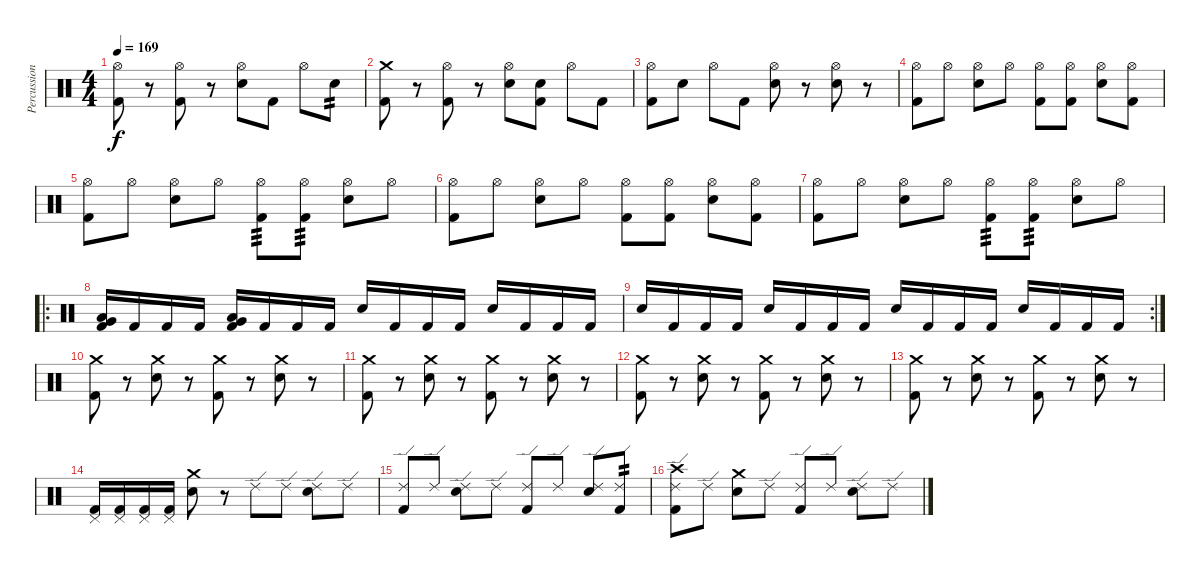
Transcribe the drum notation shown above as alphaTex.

\track ("Percussion" "Percussion") {instrument percussion}
\staff {score}
\articulation defaults
\ts (4 4)
\tempo 169
\clef neutral
\ks c
("Hi-Hat (open)" "Kick (hit) 2").8{dy f} r.8 ("Hi-Hat (open)" "Kick (hit) 2").8 r.8 ("Hi-Hat (open)" "Electric Snare (hit)").8 "Kick (hit) 2".8 "Hi-Hat (open)".8 "Electric Snare (hit)".8{tp 2} |
("Crash medium (hit)" "Kick (hit) 2").8 r.8 ("Hi-Hat (open)" "Kick (hit) 2").8 r.8 ("Hi-Hat (open)" "Electric Snare (hit)").8 ("Electric Snare (hit)" "Kick (hit) 2").8 "Hi-Hat (open)".8 "Kick (hit) 2".8 |
("Hi-Hat (open)" "Kick (hit) 2").8 "Electric Snare (hit)".8 "Hi-Hat (open)".8 "Kick (hit) 2".8 ("Hi-Hat (open)" "Electric Snare (hit)").8 r.8 ("Hi-Hat (open)" "Electric Snare (hit)").8 r.8 |
("Hi-Hat (open)" "Kick (hit) 2").8 "Hi-Hat (open)".8 ("Hi-Hat (open)" "Electric Snare (hit)").8 "Hi-Hat (open)".8 ("Hi-Hat (open)" "Kick (hit) 2").8 ("Hi-Hat (open)" "Kick (hit) 2").8 ("Hi-Hat (open)" "Electric Snare (hit)").8 ("Hi-Hat (open)" "Kick (hit) 2").8 |
("Hi-Hat (open)" "Kick (hit) 2").8 "Hi-Hat (open)".8 ("Hi-Hat (open)" "Electric Snare (hit)").8 "Hi-Hat (open)".8 ("Hi-Hat (open)" "Kick (hit) 2").8{tp 3} ("Hi-Hat (open)" "Kick (hit) 2").8{tp 3} ("Hi-Hat (open)" "Electric Snare (hit)").8 "Hi-Hat (open)".8 |
("Hi-Hat (open)" "Kick (hit) 2").8 "Hi-Hat (open)".8 ("Hi-Hat (open)" "Electric Snare (hit)").8 "Hi-Hat (open)".8 ("Hi-Hat (open)" "Kick (hit) 2").8 ("Hi-Hat (open)" "Kick (hit) 2").8 ("Hi-Hat (open)" "Electric Snare (hit)").8 ("Hi-Hat (open)" "Kick (hit) 2").8 |
("Hi-Hat (open)" "Kick (hit) 2").8 "Hi-Hat (open)".8 ("Hi-Hat (open)" "Electric Snare (hit)").8 "Hi-Hat (open)".8 ("Hi-Hat (open)" "Kick (hit) 2").8{tp 3} ("Hi-Hat (open)" "Kick (hit) 2").8{tp 3} ("Hi-Hat (open)" "Electric Snare (hit)").8 "Hi-Hat (open)".8 |
\ro
("Very Low Tom (hit)" "Low Tom (hit)" "Kick (hit) 2").16 "Kick (hit) 2".16 "Kick (hit) 2".16 "Kick (hit) 2".16 ("Very Low Tom (hit)" "Low Tom (hit)" "Kick (hit) 2").16 "Kick (hit) 2".16 "Kick (hit) 2".16 "Kick (hit) 2".16 "Electric Snare (hit)".16 "Kick (hit) 2".16 "Kick (hit) 2".16 "Kick (hit) 2".16 "Electric Snare (hit)".16 "Kick (hit) 2".16 "Kick (hit) 2".16 "Kick (hit) 2".16 |
\rc 2 "Electric Snare (hit)".16 "Kick (hit) 2".16 "Kick (hit) 2".16 "Kick (hit) 2".16 "Electric Snare (hit)".16 "Kick (hit) 2".16 "Kick (hit) 2".16 "Kick (hit) 2".16 "Electric Snare (hit)".16 "Kick (hit) 2".16 "Kick (hit) 2".16 "Kick (hit) 2".16 "Electric Snare (hit)".16 "Kick (hit) 2".16 "Kick (hit) 2".16 "Kick (hit) 2".16
|
("Crash medium (hit)" "Kick (hit) 2").8 r.8 ("Crash medium (hit)" "Electric Snare (hit)").8 r.8 ("Crash medium (hit)" "Kick (hit) 2").8 r.8 ("Crash medium (hit)" "Electric Snare (hit)").8 r.8 |
("Crash medium (hit)" "Kick (hit) 2").8 r.8 ("Crash medium (hit)" "Electric Snare (hit)").8 r.8 ("Crash medium (hit)" "Kick (hit) 2").8 r.8 ("Crash medium (hit)" "Electric Snare (hit)").8 r.8 |
("Crash medium (hit)" "Kick (hit) 2").8 r.8 ("Crash medium (hit)" "Electric Snare (hit)").8 r.8 ("Crash medium (hit)" "Kick (hit) 2").8 r.8 ("Crash medium (hit)" "Electric Snare (hit)").8 r.8 |
("Crash medium (hit)" "Kick (hit) 2").8 r.8 ("Crash medium (hit)" "Electric Snare (hit)").8 r.8 ("Crash medium (hit)" "Kick (hit) 2").8 r.8 ("Crash medium (hit)" "Electric Snare (hit)").8 r.8 |
("Pedal Hi-Hat (hit)" "Kick (hit) 2").16 ("Pedal Hi-Hat (hit)" "Kick (hit) 2").16 ("Pedal Hi-Hat (hit)" "Kick (hit) 2").16 ("Pedal Hi-Hat (hit)" "Kick (hit) 2").16 ("Crash medium (hit)" "Electric Snare (hit)").8 r.8 "Ride (edge) 2".8 "Ride (edge) 2".8 ("Ride (edge) 2" "Electric Snare (hit)").8 "Ride (edge) 2".8 |
("Ride (edge) 2" "Kick (hit) 2").8 "Ride (edge) 2".8 ("Ride (edge) 2" "Electric Snare (hit)").8 "Ride (edge) 2".8 ("Ride (edge) 2" "Kick (hit) 2").8 "Ride (edge) 2".8 ("Ride (edge) 2" "Electric Snare (hit)").8 ("Ride (edge) 2" "Kick (hit) 2").8{tp 2} |
("Ride (edge) 2" "Crash high (hit)" "Kick (hit) 2").8 "Ride (edge) 2".8 ("Crash medium (hit)" "Electric Snare (hit)").8 "Ride (edge) 2".8 ("Ride (edge) 2" "Kick (hit) 2").8 "Ride (edge) 2".8 ("Ride (edge) 2" "Electric Snare (hit)").8 "Ride (edge) 2".8
